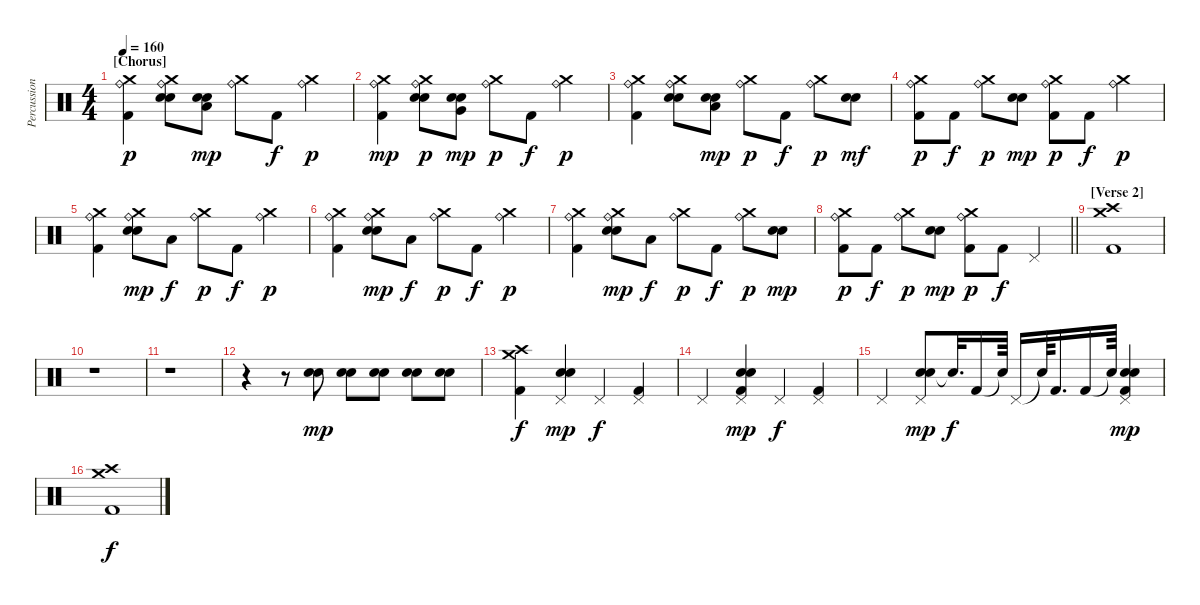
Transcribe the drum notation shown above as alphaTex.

\track ("Percussion" "Percussion") {instrument percussion}
\staff {score}
\articulation defaults
\ts (4 4)
\section ("" "[Chorus]")
\tempo 160
\clef neutral
\ks c
("Kick (hit) 2" "Ride (bell)" "Crash medium (hit)").4{dy p} ("Snare (hit) 2" "Ride (bell)" "Electric Snare (hit)" "Crash medium (hit)").8 ("Low Floor Tom (hit)" "Snare (hit) 2" "Electric Snare (hit)").8{dy mp} ("Ride (bell)" "Crash medium (hit)").8 "Kick (hit) 2".8{dy f} ("Ride (bell)" "Crash medium (hit)").4{dy p} |
("Kick (hit) 2" "Ride (bell)" "Crash medium (hit)").4{dy mp} ("Snare (hit) 2" "Ride (bell)" "Electric Snare (hit)" "Crash medium (hit)").8{dy p} ("Very Low Tom (hit)" "Snare (hit) 2" "Electric Snare (hit)").8{dy mp} ("Ride (bell)" "Crash medium (hit)").8{dy p} "Kick (hit) 2".8{dy f} ("Ride (bell)" "Crash medium (hit)").4{dy p} |
("Kick (hit) 2" "Ride (bell)" "Crash medium (hit)").4 ("Snare (hit) 2" "Ride (bell)" "Electric Snare (hit)" "Crash medium (hit)").8 ("Low Floor Tom (hit)" "Snare (hit) 2" "Electric Snare (hit)").8{dy mp} ("Ride (bell)" "Crash medium (hit)").8{dy p} "Kick (hit) 2".8{dy f} ("Ride (bell)" "Crash medium (hit)").8{dy p} ("Snare (hit) 2" "Electric Snare (hit)").8{dy mf} |
("Ride (bell)" "Kick (hit) 2" "Crash medium (hit)").8{dy p} "Kick (hit) 2".8{dy f} ("Ride (bell)" "Crash medium (hit)").8{dy p} ("Snare (hit) 2" "Electric Snare (hit)").8{dy mp} ("Ride (bell)" "Kick (hit) 2" "Crash medium (hit)").8{dy p} "Kick (hit) 2".8{dy f} ("Ride (bell)" "Crash medium (hit)").4{dy p} |
("Ride (bell)" "Kick (hit) 2" "Crash medium (hit)").4 ("Ride (bell)" "Snare (hit) 2" "Crash medium (hit)" "Electric Snare (hit)").8{dy mp} "Low Floor Tom (hit)".8{dy f} ("Ride (bell)" "Crash medium (hit)").8{dy p} "Kick (hit) 2".8{dy f} ("Ride (bell)" "Crash medium (hit)").4{dy p} |
("Kick (hit) 2" "Ride (bell)" "Crash medium (hit)").4 ("Snare (hit) 2" "Ride (bell)" "Crash medium (hit)" "Electric Snare (hit)").8{dy mp} "Low Floor Tom (hit)".8{dy f} ("Ride (bell)" "Crash medium (hit)").8{dy p} "Kick (hit) 2".8{dy f} ("Ride (bell)" "Crash medium (hit)").4{dy p} |
("Kick (hit) 2" "Ride (bell)" "Crash medium (hit)").4 ("Snare (hit) 2" "Ride (bell)" "Crash medium (hit)" "Electric Snare (hit)").8{dy mp} "Low Floor Tom (hit)".8{dy f} ("Ride (bell)" "Crash medium (hit)").8{dy p} "Kick (hit) 2".8{dy f} ("Ride (bell)" "Crash medium (hit)").8{dy p} ("Snare (hit) 2" "Electric Snare (hit)").8{dy mp} |
\barLineRight lightlight
("Ride (bell)" "Kick (hit) 2" "Crash medium (hit)").8{dy p} "Kick (hit) 2".8{dy f} ("Ride (bell)" "Crash medium (hit)").8{dy p} ("Snare (hit) 2" "Electric Snare (hit)").8{dy mp} ("Ride (bell)" "Kick (hit) 2" "Crash medium (hit)").8{dy p} "Kick (hit) 2".8{dy f} "Pedal Hi-Hat (hit)".4 |
\section ("" "[Verse 2]")
("Kick (hit) 2" "Crash high (hit)" "Crash medium (hit)").1 |
r.1 |
r.1 |
r.4 r.8 ("Snare (hit) 2" "Electric Snare (hit)").8{dy mp} ("Snare (hit) 2" "Electric Snare (hit)").8 ("Snare (hit) 2" "Electric Snare (hit)").8 ("Snare (hit) 2" "Electric Snare (hit)").8 ("Snare (hit) 2" "Electric Snare (hit)").8 |
("Crash medium (hit)" "Kick (hit) 2" "Crash high (hit)").4{dy f} ("Snare (hit) 2" "Electric Snare (hit)" "Pedal Hi-Hat (hit)").4{dy mp} "Pedal Hi-Hat (hit)".4{dy f} ("Pedal Hi-Hat (hit)" "Kick (hit) 2").4 |
"Pedal Hi-Hat (hit)".4 ("Snare (hit) 2" "Pedal Hi-Hat (hit)" "Kick (hit) 2" "Electric Snare (hit)").4{dy mp} "Pedal Hi-Hat (hit)".4{dy f} ("Kick (hit) 2" "Pedal Hi-Hat (hit)").4 |
"Pedal Hi-Hat (hit)".4 ("Snare (hit) 2" "Electric Snare (hit)" "Pedal Hi-Hat (hit)").8{dy mp} "Snare (hit)"{t}.32{d dy f} "Kick (hit) 2".16 "Snare (hit)"{t}.64 "Pedal Hi-Hat (hit)".16 "Snare (hit)"{t}.64 "Kick (hit) 2".16{d} "Kick (hit) 2".16 "Snare (hit)"{t}.64 ("Snare (hit) 2" "Electric Snare (hit)" "Pedal Hi-Hat (hit)" "Kick (hit) 2").4{dy mp} |
("Kick (hit) 2" "Crash high (hit)" "Crash medium (hit)").1{dy f}
